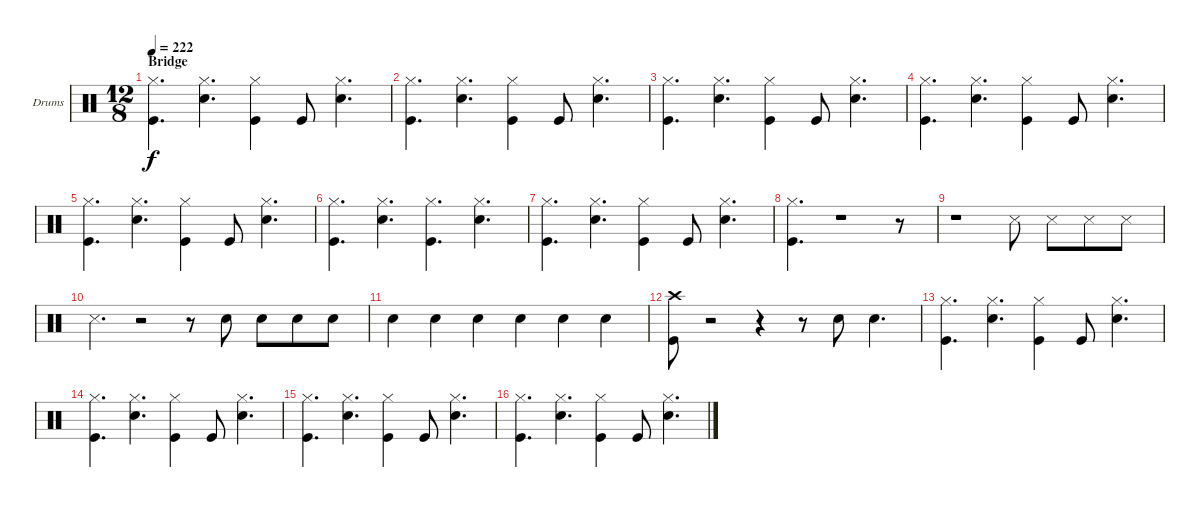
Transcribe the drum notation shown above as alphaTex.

\bracketExtendMode nobrackets
\firstSystemTrackNameOrientation horizontal
\otherSystemsTrackNameOrientation horizontal
\track ("Drumkit" "Drums") {instrument percussion}
\staff {score}
\articulation defaults
\ts (12 8)
\section ("" "Bridge")
\tempo 222
\clef neutral
\ks c
("Hi-Hat (closed)" "Kick (hit)").4{d dy f} ("Hi-Hat (closed)" "Snare (hit) 2").4{d} ("Hi-Hat (closed)" "Kick (hit)").4 "Kick (hit)".8 ("Hi-Hat (closed)" "Snare (hit) 2").4{d} |
("Hi-Hat (closed)" "Kick (hit)").4{d} ("Hi-Hat (closed)" "Snare (hit) 2").4{d} ("Hi-Hat (closed)" "Kick (hit)").4 "Kick (hit)".8 ("Hi-Hat (closed)" "Snare (hit) 2").4{d} |
("Hi-Hat (closed)" "Kick (hit)").4{d} ("Hi-Hat (closed)" "Snare (hit) 2").4{d} ("Hi-Hat (closed)" "Kick (hit)").4 "Kick (hit)".8 ("Hi-Hat (closed)" "Snare (hit) 2").4{d} |
("Hi-Hat (closed)" "Kick (hit)").4{d} ("Hi-Hat (closed)" "Snare (hit) 2").4{d} ("Hi-Hat (closed)" "Kick (hit)").4 "Kick (hit)".8 ("Hi-Hat (closed)" "Snare (hit) 2").4{d} |
("Hi-Hat (closed)" "Kick (hit)").4{d} ("Hi-Hat (closed)" "Snare (hit) 2").4{d} ("Hi-Hat (closed)" "Kick (hit)").4 "Kick (hit)".8 ("Hi-Hat (closed)" "Snare (hit) 2").4{d} |
("Hi-Hat (closed)" "Kick (hit)").4{d} ("Hi-Hat (closed)" "Snare (hit) 2").4{d} ("Hi-Hat (closed)" "Kick (hit)").4{d} ("Hi-Hat (closed)" "Snare (hit) 2").4{d} |
("Hi-Hat (closed)" "Kick (hit)").4{d} ("Hi-Hat (closed)" "Snare (hit) 2").4{d} ("Hi-Hat (closed)" "Kick (hit)").4 "Kick (hit)".8 ("Hi-Hat (closed)" "Snare (hit) 2").4{d} |
("Hi-Hat (closed)" "Kick (hit)").4{d} r.1 r.8 |
r.1 "Snare (side stick) 3".8 "Snare (side stick) 3".8 "Snare (side stick) 3".8 "Snare (side stick) 3".8 |
"Snare (side stick) 3".4{d} r.2 r.8 "Snare (hit) 2".8 "Snare (hit) 2".8 "Snare (hit) 2".8 "Snare (hit) 2".8 |
"Snare (hit) 2".4 "Snare (hit) 2".4 "Snare (hit) 2".4 "Snare (hit) 2".4 "Snare (hit) 2".4 "Snare (hit) 2".4 |
("Kick (hit)" "Crash high (hit)").8 r.2 r.4 r.8 "Snare (hit) 2".8 "Snare (hit) 2".4{d} |
("Hi-Hat (closed)" "Kick (hit)").4{d} ("Hi-Hat (closed)" "Snare (hit) 2").4{d} ("Hi-Hat (closed)" "Kick (hit)").4 "Kick (hit)".8 ("Hi-Hat (closed)" "Snare (hit) 2").4{d} |
("Hi-Hat (closed)" "Kick (hit)").4{d} ("Hi-Hat (closed)" "Snare (hit) 2").4{d} ("Hi-Hat (closed)" "Kick (hit)").4 "Kick (hit)".8 ("Hi-Hat (closed)" "Snare (hit) 2").4{d} |
("Hi-Hat (closed)" "Kick (hit)").4{d} ("Hi-Hat (closed)" "Snare (hit) 2").4{d} ("Hi-Hat (closed)" "Kick (hit)").4 "Kick (hit)".8 ("Hi-Hat (closed)" "Snare (hit) 2").4{d} |
("Hi-Hat (closed)" "Kick (hit)").4{d} ("Hi-Hat (closed)" "Snare (hit) 2").4{d} ("Hi-Hat (closed)" "Kick (hit)").4 "Kick (hit)".8 ("Hi-Hat (closed)" "Snare (hit) 2").4{d}
